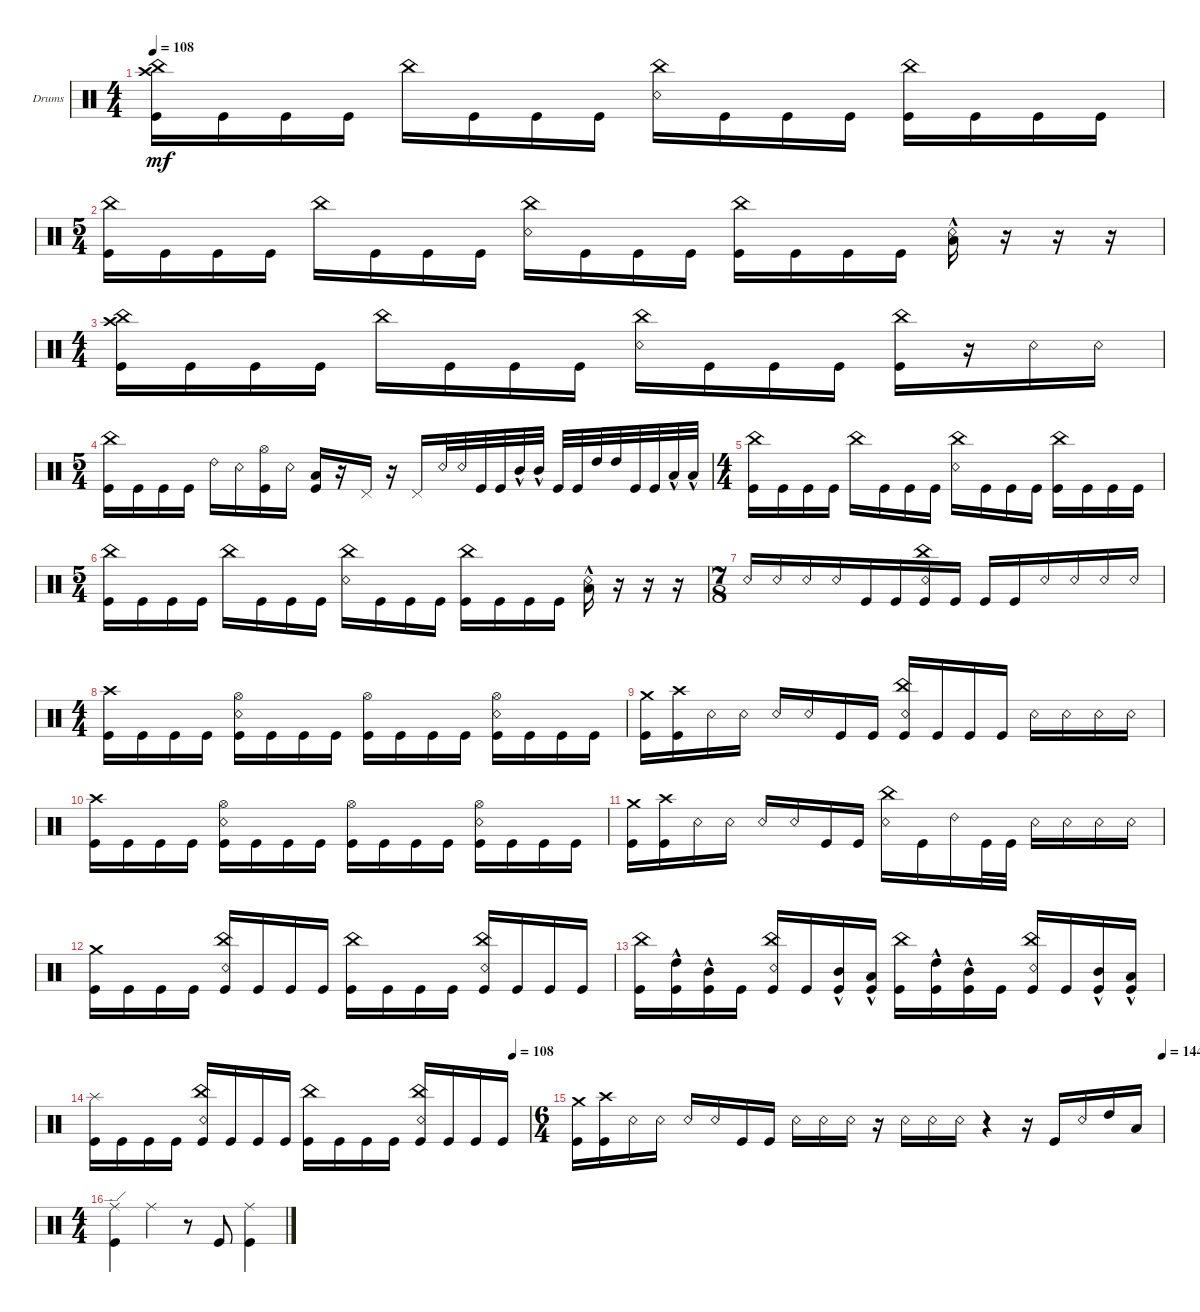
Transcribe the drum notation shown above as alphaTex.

\defaultSystemsLayout 4
\bracketExtendMode groupsimilarinstruments
\firstSystemTrackNameOrientation horizontal
\otherSystemsTrackNameOrientation horizontal
\track ("Drumkit" "Drums") {instrument percussion}
\staff {score}
\articulation defaults
\ts (4 4)
\tempo 108
\clef neutral
\ks c
("Kick (hit)" "China (hit)" "Crash high (hit)").16{dy mf} "Kick (hit)".16 "Kick (hit)".16 "Kick (hit)".16 "China (hit)".16 "Kick (hit)".16 "Kick (hit)".16 "Kick (hit)".16 ("Snare (rim shot)" "China (hit)").16 "Kick (hit)".16 "Kick (hit)".16 "Kick (hit)".16 ("Kick (hit)" "China (hit)").16 "Kick (hit)".16 "Kick (hit)".16 "Kick (hit)".16 |
\ts (5 4)
("Kick (hit)" "China (hit)").16 "Kick (hit)".16 "Kick (hit)".16 "Kick (hit)".16 "China (hit)".16 "Kick (hit)".16 "Kick (hit)".16 "Kick (hit)".16 ("Snare (rim shot)" "China (hit)").16 "Kick (hit)".16 "Kick (hit)".16 "Kick (hit)".16 ("Kick (hit)" "China (hit)").16 "Kick (hit)".16 "Kick (hit)".16 "Kick (hit)".16 ("Snare (rim shot)"{hac} "Low Tom (hit)"{hac}).16 r.16 r.16 r.16 |
\ts (4 4)
("Kick (hit)" "China (hit)" "Crash high (hit)").16 "Kick (hit)".16 "Kick (hit)".16 "Kick (hit)".16 "China (hit)".16 "Kick (hit)".16 "Kick (hit)".16 "Kick (hit)".16 ("Snare (rim shot)" "China (hit)").16 "Kick (hit)".16 "Kick (hit)".16 "Kick (hit)".16 ("Kick (hit)" "China (hit)").16 r.16 "Snare (rim shot)".16 "Snare (rim shot)".16 |
\ts (5 4)
("Kick (hit)" "China (hit)").16 "Kick (hit)".16 "Kick (hit)".16 "Kick (hit)".16 "Ride (bell) 2".16 "Snare (rim shot)".16 ("Kick (hit)" "Hi-Hat (open)").16 "Snare (rim shot)".16 ("Kick (hit)" "Low Tom (hit)").16 r.16 "Pedal Hi-Hat (hit)".16 r.16 "Pedal Hi-Hat (hit)".16 "Snare (rim shot)".32 "Snare (rim shot)".32 "Kick (hit)".32 "Kick (hit)".32 "Mid Tom (hit)"{hac}.32 "Mid Tom (hit)"{hac}.32 "Kick (hit)".32 "Kick (hit)".32 "High Tom (hit)".32 "High Tom (hit)".32 "Kick (hit)".32 "Kick (hit)".32 "Low Tom (hit)"{hac}.32 "Low Tom (hit)"{hac}.32 |
\ts (4 4)
("Kick (hit)" "China (hit)").16 "Kick (hit)".16 "Kick (hit)".16 "Kick (hit)".16 "China (hit)".16 "Kick (hit)".16 "Kick (hit)".16 "Kick (hit)".16 ("Snare (rim shot)" "China (hit)").16 "Kick (hit)".16 "Kick (hit)".16 "Kick (hit)".16 ("Kick (hit)" "China (hit)").16 "Kick (hit)".16 "Kick (hit)".16 "Kick (hit)".16 |
\ts (5 4)
("Kick (hit)" "China (hit)").16 "Kick (hit)".16 "Kick (hit)".16 "Kick (hit)".16 "China (hit)".16 "Kick (hit)".16 "Kick (hit)".16 "Kick (hit)".16 ("Snare (rim shot)" "China (hit)").16 "Kick (hit)".16 "Kick (hit)".16 "Kick (hit)".16 ("Kick (hit)" "China (hit)").16 "Kick (hit)".16 "Kick (hit)".16 "Kick (hit)".16 ("Snare (rim shot)"{hac} "Low Tom (hit)"{hac}).16 r.16 r.16 r.16 |
\ts (7 8)
"Snare (rim shot)".16 "Snare (rim shot)".16 "Snare (rim shot)".16 "Snare (rim shot)".16 "Kick (hit)".16 "Kick (hit)".16 ("Kick (hit)" "Snare (rim shot)" "China (hit)").16 "Kick (hit)".16 "Kick (hit)".16 "Kick (hit)".16 "Snare (rim shot)".16 "Snare (rim shot)".16 "Snare (rim shot)".16 "Snare (rim shot)".16 |
\ts (4 4)
("Kick (hit)" "Crash high (hit)").16 "Kick (hit)".16 "Kick (hit)".16 "Kick (hit)".16 ("Kick (hit)" "Snare (rim shot)" "Hi-Hat (open)").16 "Kick (hit)".16 "Kick (hit)".16 "Kick (hit)".16 ("Kick (hit)" "Hi-Hat (open)").16 "Kick (hit)".16 "Kick (hit)".16 "Kick (hit)".16 ("Kick (hit)" "Snare (rim shot)" "Hi-Hat (open)").16 "Kick (hit)".16 "Kick (hit)".16 "Kick (hit)".16 |
("Kick (hit)" "Crash medium (hit)").16 ("Kick (hit)" "Crash high (hit)").16 "Snare (rim shot)".16 "Snare (rim shot)".16 "Snare (rim shot)".16 "Snare (rim shot)".16 "Kick (hit)".16 "Kick (hit)".16 ("Kick (hit)" "Snare (rim shot)" "China (hit)").16 "Kick (hit)".16 "Kick (hit)".16 "Kick (hit)".16 "Snare (rim shot)".16 "Snare (rim shot)".16 "Snare (rim shot)".16 "Snare (rim shot)".16 |
("Kick (hit)" "Crash high (hit)").16 "Kick (hit)".16 "Kick (hit)".16 "Kick (hit)".16 ("Kick (hit)" "Snare (rim shot)" "Hi-Hat (open)").16 "Kick (hit)".16 "Kick (hit)".16 "Kick (hit)".16 ("Kick (hit)" "Hi-Hat (open)").16 "Kick (hit)".16 "Kick (hit)".16 "Kick (hit)".16 ("Kick (hit)" "Snare (rim shot)" "Hi-Hat (open)").16 "Kick (hit)".16 "Kick (hit)".16 "Kick (hit)".16 |
("Kick (hit)" "Crash medium (hit)").16 ("Kick (hit)" "Crash high (hit)").16 "Snare (rim shot)".16 "Snare (rim shot)".16 "Snare (rim shot)".16 "Snare (rim shot)".16 "Kick (hit)".16 "Kick (hit)".16 ("Snare (rim shot)" "China (hit)").16 "Kick (hit)".16 "Ride (bell) 2".16 "Kick (hit)".32 "Kick (hit)".32 "Snare (rim shot)".16 "Snare (rim shot)".16 "Snare (rim shot)".16 "Snare (rim shot)".16 |
("Kick (hit)" "Crash medium (hit)").16 "Kick (hit)".16 "Kick (hit)".16 "Kick (hit)".16 ("Kick (hit)" "China (hit)" "Snare (rim shot)").16 "Kick (hit)".16 "Kick (hit)".16 "Kick (hit)".16 ("Kick (hit)" "China (hit)").16 "Kick (hit)".16 "Kick (hit)".16 "Kick (hit)".16 ("Kick (hit)" "China (hit)" "Snare (rim shot)").16 "Kick (hit)".16 "Kick (hit)".16 "Kick (hit)".16 |
("Kick (hit)" "China (hit)").16 ("Kick (hit)" "High Tom (hit)"{hac}).16 ("Kick (hit)" "Mid Tom (hit)"{hac}).16 "Kick (hit)".16 ("Snare (rim shot)" "China (hit)" "Kick (hit)").16 "Kick (hit)".16 ("Kick (hit)" "Mid Tom (hit)"{hac}).16 ("Kick (hit)" "Low Tom (hit)"{hac}).16 ("Kick (hit)" "China (hit)").16 ("Kick (hit)" "High Tom (hit)"{hac}).16 ("Kick (hit)" "Mid Tom (hit)"{hac}).16 "Kick (hit)".16 ("Kick (hit)" "China (hit)" "Snare (rim shot)").16 "Kick (hit)".16 ("Kick (hit)" "Mid Tom (hit)"{hac}).16 ("Kick (hit)" "Low Tom (hit)"{hac}).16 |
\tempo (108 0.9625)
("Kick (hit)" "Splash (hit)").16 "Kick (hit)".16 "Kick (hit)".16 "Kick (hit)".16 ("Kick (hit)" "China (hit)" "Snare (rim shot)").16 "Kick (hit)".16 "Kick (hit)".16 "Kick (hit)".16 ("Kick (hit)" "China (hit)").16 "Kick (hit)".16 "Kick (hit)".16 "Kick (hit)".16 ("Kick (hit)" "China (hit)" "Snare (rim shot)").16 "Kick (hit)".16 "Kick (hit)".16 "Kick (hit)".16 |
\ts (6 4)
\tempo (144.988 1)
("Kick (hit)" "Crash medium (hit)").16 ("Kick (hit)" "Crash high (hit)").16 "Snare (rim shot)".16 "Snare (rim shot)".16 "Snare (rim shot)".16 "Snare (rim shot)".16 "Kick (hit)".16 "Kick (hit)".16 "Snare (rim shot)".16 "Snare (rim shot)".16 "Snare (rim shot)".16 r.16 "Snare (rim shot)".16 "Snare (rim shot)".16 "Snare (rim shot)".16 r.4 r.16 "Kick (hit)".16 "Snare (rim shot)".16 "High Tom (hit)".16 "Low Tom (hit)".16 |
\ts (4 4)
("Kick (hit)" "Ride (edge)").4 "Ride (middle)".4 r.8 "Kick (hit)".8 ("Ride (middle)" "Kick (hit)").4
